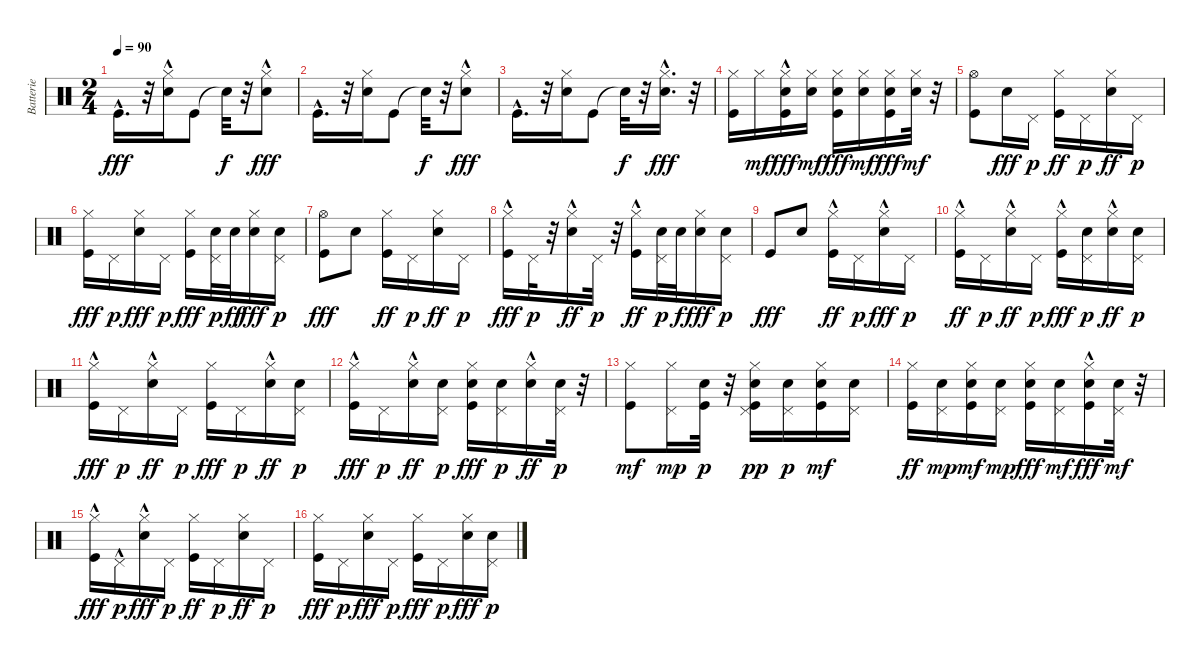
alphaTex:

\track ("Batterie" "Batterie") {instrument percussion}
\staff {score}
\articulation defaults
\ts (2 4)
\tempo 90
\clef neutral
\ks c "Kick (hit)"{hac}.16{d dy fff}
r.32 ("Snare (hit) 2" "Hi-Hat (closed)"{hac}).16 "Kick (hit)".8 "Snare (hit)"{t}.32{dy f} r.32 ("Snare (hit) 2"{hac} "Hi-Hat (closed)").8{dy fff} |
"Kick (hit)"{hac}.16{d} r.32 ("Snare (hit) 2" "Hi-Hat (closed)").16 "Kick (hit)".8 "Snare (hit)"{t}.32{dy f} r.32 ("Snare (hit) 2"{hac} "Hi-Hat (closed)").8{dy fff} |
"Kick (hit)"{hac}.16{d} r.32 ("Snare (hit) 2" "Hi-Hat (closed)").16 "Kick (hit)".8 "Snare (hit)"{t}.32{dy f} r.32 ("Snare (hit) 2"{hac} "Hi-Hat (closed)"{hac}).16{d dy fff} r.32 |
("Kick (hit)" "Hi-Hat (closed)").16 "Hi-Hat (closed)".16{dy mf} ("Kick (hit)"{hac} "Snare (hit) 2" "Hi-Hat (closed)").16{dy fff} ("Snare (hit) 2" "Hi-Hat (closed)").16{dy mf} ("Kick (hit)" "Hi-Hat (closed)" "Snare (hit) 2").16{dy fff} ("Snare (hit) 2" "Hi-Hat (closed)").16{dy mf} ("Kick (hit)" "Snare (hit) 2" "Hi-Hat (closed)").16{dy fff} ("Snare (hit) 2" "Hi-Hat (closed)").32{dy mf} r.32 |
("Kick (hit)" "Hi-Hat (open)").8 "Snare (hit) 2".16{dy fff} "Pedal Hi-Hat (hit)".16{dy p} ("Kick (hit)" "Hi-Hat (closed)").16{dy ff} "Pedal Hi-Hat (hit)".16{dy p} ("Snare (hit) 2" "Hi-Hat (closed)").16{dy ff} "Pedal Hi-Hat (hit)".16{dy p} |
("Kick (hit)" "Hi-Hat (closed)").16{dy fff} "Pedal Hi-Hat (hit)".16{dy p} ("Snare (hit) 2" "Hi-Hat (closed)").16{dy fff} "Pedal Hi-Hat (hit)".16{dy p} ("Kick (hit)" "Hi-Hat (closed)").16{dy fff} ("Snare (hit) 2" "Pedal Hi-Hat (hit)").32{dy p} "Snare (hit) 2".32{dy ff} ("Snare (hit) 2" "Hi-Hat (closed)").16{dy fff} ("Snare (hit) 2" "Pedal Hi-Hat (hit)").16{dy p} |
("Kick (hit)" "Hi-Hat (open)").8{dy fff} "Snare (hit) 2".8 ("Kick (hit)" "Hi-Hat (closed)").16{dy ff} "Pedal Hi-Hat (hit)".16{dy p} ("Snare (hit) 2" "Hi-Hat (closed)").16{dy ff} "Pedal Hi-Hat (hit)".16{dy p} |
("Kick (hit)" "Hi-Hat (closed)"{hac}).16{dy fff} "Pedal Hi-Hat (hit)".32{dy p} r.32 ("Snare (hit) 2" "Hi-Hat (closed)"{hac}).16{dy ff} "Pedal Hi-Hat (hit)".32{dy p} r.32 ("Kick (hit)" "Hi-Hat (closed)"{hac}).16{dy ff} ("Snare (hit) 2" "Pedal Hi-Hat (hit)").32{dy p} "Snare (hit) 2".32{dy f} ("Snare (hit) 2" "Hi-Hat (closed)").16{dy fff} ("Snare (hit) 2" "Pedal Hi-Hat (hit)").16{dy p} |
"Kick (hit)".8{dy fff} "Snare (hit) 2".8 ("Kick (hit)" "Hi-Hat (closed)"{hac}).16{dy ff} "Pedal Hi-Hat (hit)".16{dy p} ("Snare (hit) 2" "Hi-Hat (closed)"{hac}).16{dy fff} "Pedal Hi-Hat (hit)".16{dy p} |
("Kick (hit)" "Hi-Hat (closed)"{hac}).16{dy ff} "Pedal Hi-Hat (hit)".16{dy p} ("Snare (hit) 2" "Hi-Hat (closed)"{hac}).16{dy ff} "Pedal Hi-Hat (hit)".16{dy p} ("Kick (hit)" "Hi-Hat (closed)"{hac}).16{dy fff} ("Snare (hit) 2" "Pedal Hi-Hat (hit)").16{dy p} ("Snare (hit) 2" "Hi-Hat (closed)"{hac}).16{dy ff} ("Snare (hit) 2" "Pedal Hi-Hat (hit)").16{dy p} |
("Kick (hit)" "Hi-Hat (closed)"{hac}).16{dy fff} "Pedal Hi-Hat (hit)".16{dy p} ("Snare (hit) 2" "Hi-Hat (closed)"{hac}).16{dy ff} "Pedal Hi-Hat (hit)".16{dy p} ("Kick (hit)" "Hi-Hat (closed)").16{dy fff} "Pedal Hi-Hat (hit)".16{dy p} ("Snare (hit) 2" "Hi-Hat (closed)"{hac}).16{dy ff} ("Snare (hit) 2" "Pedal Hi-Hat (hit)").16{dy p} |
("Kick (hit)" "Hi-Hat (closed)"{hac}).16{dy fff} "Pedal Hi-Hat (hit)".16{dy p} ("Snare (hit) 2" "Hi-Hat (closed)"{hac}).16{dy ff} ("Snare (hit) 2" "Pedal Hi-Hat (hit)").16{dy p} ("Kick (hit)" "Snare (hit) 2" "Hi-Hat (closed)").16{dy fff} ("Snare (hit) 2" "Pedal Hi-Hat (hit)").16{dy p} ("Snare (hit) 2" "Hi-Hat (closed)"{hac}).16{dy ff} ("Snare (hit) 2" "Pedal Hi-Hat (hit)").32{dy p} r.32 |
("Kick (hit)" "Hi-Hat (closed)").8{dy mf} ("Hi-Hat (closed)" "Pedal Hi-Hat (hit)").16{dy mp} ("Kick (hit)" "Snare (hit) 2").32{dy p} r.32 ("Kick (hit)" "Snare (hit) 2" "Hi-Hat (closed)" "Pedal Hi-Hat (hit)").16{dy pp} ("Snare (hit) 2" "Pedal Hi-Hat (hit)").16{dy p} ("Kick (hit)" "Snare (hit) 2" "Hi-Hat (closed)").16{dy mf} ("Snare (hit) 2" "Pedal Hi-Hat (hit)").16 |
("Kick (hit)" "Hi-Hat (closed)").16{dy ff} ("Snare (hit) 2" "Pedal Hi-Hat (hit)").16{dy mp} ("Kick (hit)" "Snare (hit) 2" "Hi-Hat (closed)").16{dy mf} ("Snare (hit) 2" "Pedal Hi-Hat (hit)").16{dy mp} ("Kick (hit)" "Snare (hit) 2" "Hi-Hat (closed)").16{dy fff} ("Snare (hit) 2" "Pedal Hi-Hat (hit)").16{dy mf} ("Kick (hit)"{hac} "Snare (hit) 2" "Hi-Hat (closed)").16{dy fff} ("Snare (hit) 2" "Pedal Hi-Hat (hit)").32{dy mf} r.32 |
("Kick (hit)" "Hi-Hat (closed)"{hac}).16{dy fff} "Pedal Hi-Hat (hit)"{hac}.16{dy p} ("Snare (hit) 2" "Hi-Hat (closed)"{hac}).16{dy fff} "Pedal Hi-Hat (hit)".16{dy p} ("Kick (hit)" "Hi-Hat (closed)").16{dy ff} "Pedal Hi-Hat (hit)".16{dy p} ("Snare (hit) 2" "Hi-Hat (closed)").16{dy ff} "Pedal Hi-Hat (hit)".16{dy p} |
("Kick (hit)" "Hi-Hat (closed)").16{dy fff} "Pedal Hi-Hat (hit)".16{dy p} ("Snare (hit) 2" "Hi-Hat (closed)").16{dy fff} "Pedal Hi-Hat (hit)".16{dy p} ("Kick (hit)" "Hi-Hat (closed)").16{dy fff} "Pedal Hi-Hat (hit)".16{dy p} ("Snare (hit) 2" "Hi-Hat (closed)").16{dy fff} ("Snare (hit) 2" "Pedal Hi-Hat (hit)").16{dy p}
